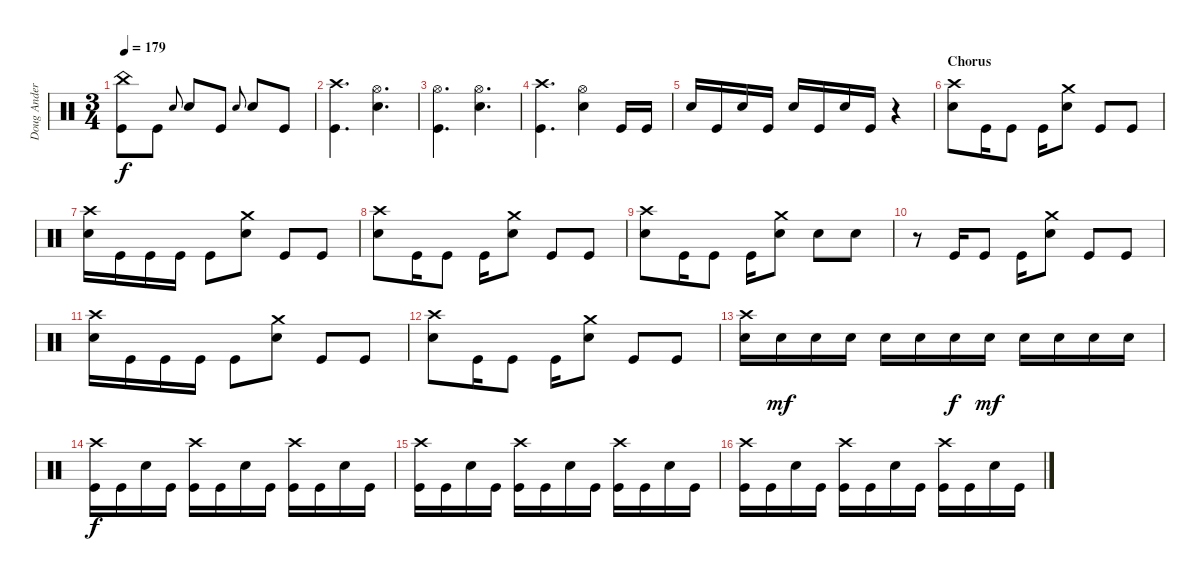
\track ("Doug Anderson" "Doug Ander") {instrument percussion}
\staff {score}
\articulation defaults
\ts (3 4)
\tempo 179
\clef neutral
\ks c
("Kick (hit)" "China (hit)").8{dy f} "Kick (hit)".8 "Snare (hit)".8{gr onbeat} "Snare (hit) 2".8 "Kick (hit)".8 "Snare (hit)".8{gr onbeat} "Snare (hit) 2".8 "Kick (hit)".8 |
("Kick (hit)" "Crash high (hit)").4{d} ("Snare (hit) 2" "Hi-Hat (open)").4{d} |
("Kick (hit)" "Hi-Hat (open)").4{d} ("Snare (hit) 2" "Hi-Hat (open)").4{d} |
("Kick (hit)" "Crash high (hit)").4{d} ("Snare (hit) 2" "Hi-Hat (open)").4 "Kick (hit)".16 "Kick (hit)".16 |
"Snare (hit) 2".16 "Kick (hit)".16 "Snare (hit) 2".16 "Kick (hit)".16 "Snare (hit) 2".16 "Kick (hit)".16 "Snare (hit) 2".16 "Kick (hit)".16 r.4 |
\section ("" "Chorus")
("Snare (hit) 2" "Crash high (hit)").8 "Kick (hit)".16 "Kick (hit)".8 "Kick (hit)".16 ("Snare (hit) 2" "Crash medium (hit)").8 "Kick (hit)".8 "Kick (hit)".8 |
("Snare (hit) 2" "Crash high (hit)").16 "Kick (hit)".16 "Kick (hit)".16 "Kick (hit)".16 "Kick (hit)".8 ("Snare (hit) 2" "Crash medium (hit)").8 "Kick (hit)".8 "Kick (hit)".8 |
("Snare (hit) 2" "Crash high (hit)").8 "Kick (hit)".16 "Kick (hit)".8 "Kick (hit)".16 ("Snare (hit) 2" "Crash medium (hit)").8 "Kick (hit)".8 "Kick (hit)".8 |
("Snare (hit) 2" "Crash high (hit)").8 "Kick (hit)".16 "Kick (hit)".8 "Kick (hit)".16 ("Snare (hit) 2" "Crash medium (hit)").8 "Snare (hit) 2".8 "Snare (hit) 2".8 |
r.8 "Kick (hit)".16 "Kick (hit)".8 "Kick (hit)".16 ("Snare (hit) 2" "Crash medium (hit)").8 "Kick (hit)".8 "Kick (hit)".8 |
("Snare (hit) 2" "Crash high (hit)").16 "Kick (hit)".16 "Kick (hit)".16 "Kick (hit)".16 "Kick (hit)".8 ("Snare (hit) 2" "Crash medium (hit)").8 "Kick (hit)".8 "Kick (hit)".8 |
("Snare (hit) 2" "Crash high (hit)").8 "Kick (hit)".16 "Kick (hit)".8 "Kick (hit)".16 ("Snare (hit) 2" "Crash medium (hit)").8 "Kick (hit)".8 "Kick (hit)".8 |
("Crash high (hit)" "Snare (hit) 2").16 "Snare (hit) 2".16{dy mf} "Snare (hit) 2".16 "Snare (hit) 2".16 "Snare (hit) 2".16 "Snare (hit) 2".16 "Snare (hit) 2".16{dy f} "Snare (hit) 2".16{dy mf} "Snare (hit) 2".16 "Snare (hit) 2".16 "Snare (hit) 2".16 "Snare (hit) 2".16 |
("Kick (hit)" "Crash high (hit)").16{dy f} "Kick (hit)".16 "Snare (hit) 2".16 "Kick (hit)".16 ("Kick (hit)" "Crash high (hit)").16 "Kick (hit)".16 "Snare (hit) 2".16 "Kick (hit)".16 ("Kick (hit)" "Crash high (hit)").16 "Kick (hit)".16 "Snare (hit) 2".16 "Kick (hit)".16 |
("Kick (hit)" "Crash high (hit)").16 "Kick (hit)".16 "Snare (hit) 2".16 "Kick (hit)".16 ("Kick (hit)" "Crash high (hit)").16 "Kick (hit)".16 "Snare (hit) 2".16 "Kick (hit)".16 ("Kick (hit)" "Crash high (hit)").16 "Kick (hit)".16 "Snare (hit) 2".16 "Kick (hit)".16 |
("Kick (hit)" "Crash high (hit)").16 "Kick (hit)".16 "Snare (hit) 2".16 "Kick (hit)".16 ("Kick (hit)" "Crash high (hit)").16 "Kick (hit)".16 "Snare (hit) 2".16 "Kick (hit)".16 ("Kick (hit)" "Crash high (hit)").16 "Kick (hit)".16 "Snare (hit) 2".16 "Kick (hit)".16
